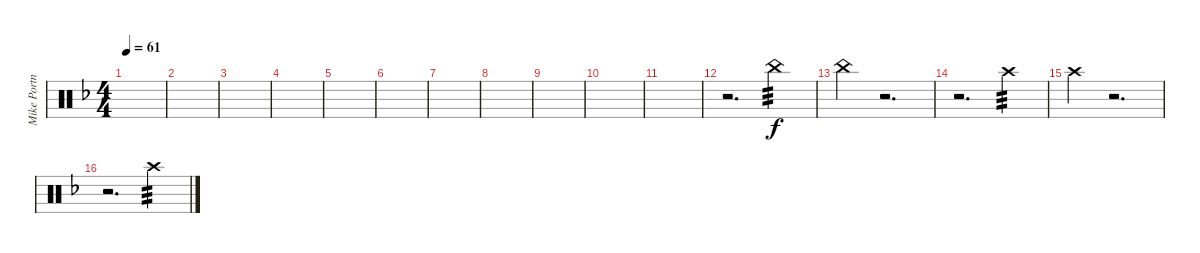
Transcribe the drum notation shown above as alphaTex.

\track ("Mike Portnoy - Drums" "Mike Portn") {instrument percussion}
\staff {score}
\articulation defaults
\ts (4 4)
\tempo 61
\clef neutral
\ks dminor
|
|
|
|
|
|
|
|
|
|
|
r.2{d volume 0} "China (hit)".4{tp 3 volume 13} |
"China (hit)".4 r.2{d} |
r.2{d volume 0} "Crash high (hit)".4{tp 3 volume 13} |
"Crash high (hit)".4 r.2{d} |
r.2{d volume 0} "Crash high (hit)".4{tp 3 volume 13}
